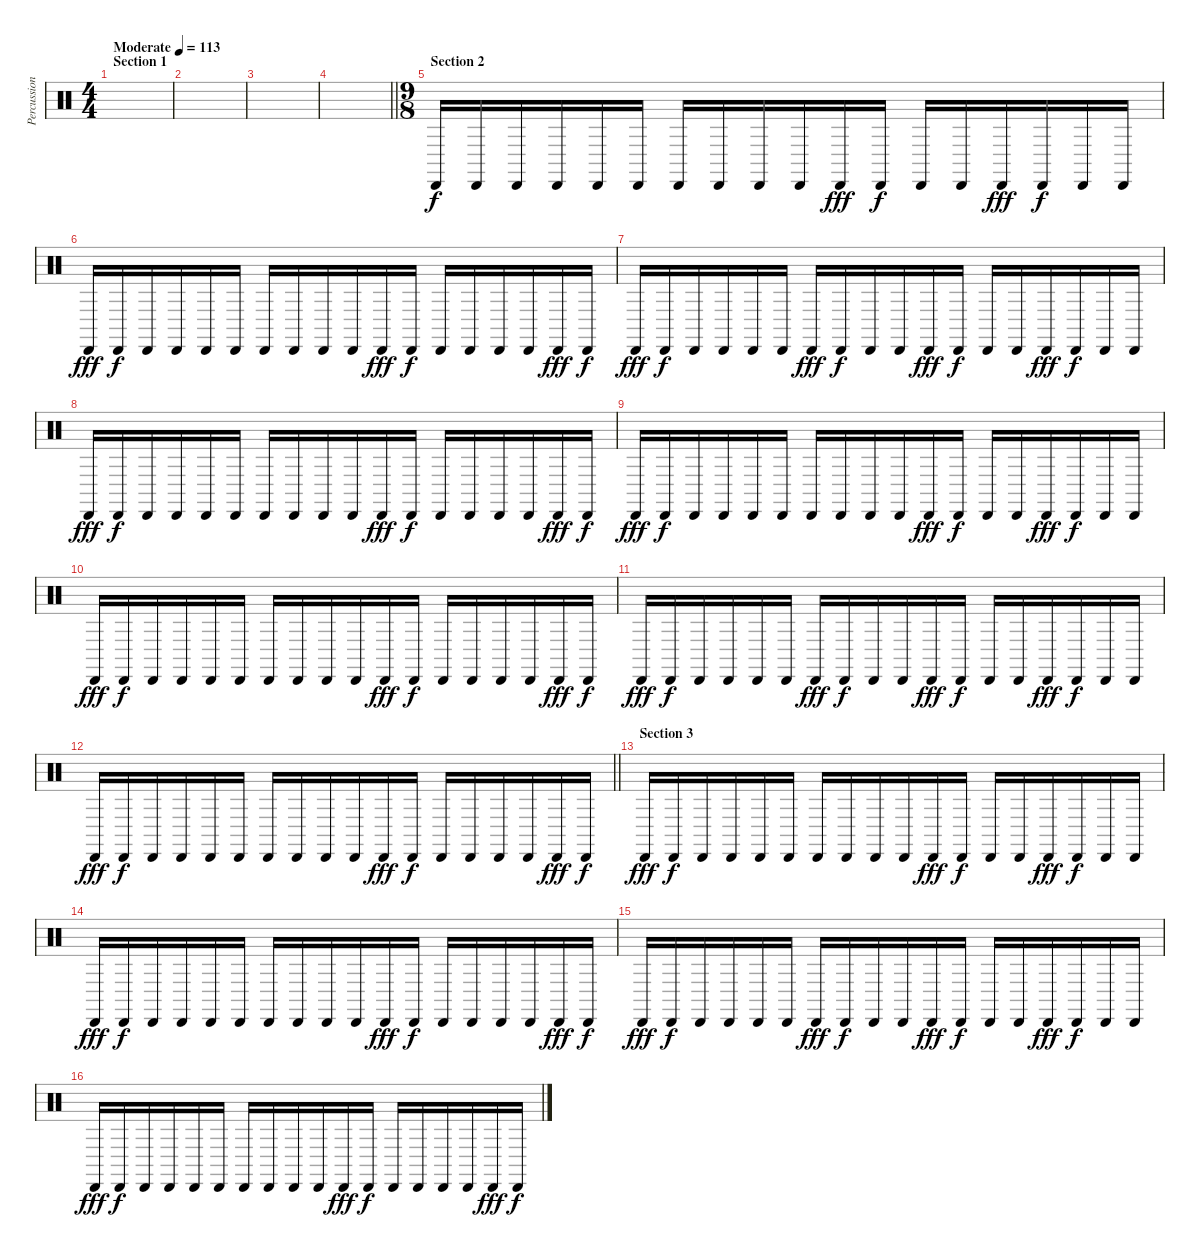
\track ("Percussion" "Percussion") {instrument percussion}
\staff {score}
\articulation defaults
\ts (4 4)
\section ("" "Section 1")
\tempo (113 "Moderate")
\clef neutral
\ks c
|
|
|
\barLineRight lightlight
|
\ts (9 8)
\section ("" "Section 2")
"Cabasa (hit)".16 "Cabasa (hit)".16{dy f} "Cabasa (hit)".16 "Cabasa (hit)".16 "Cabasa (hit)".16 "Cabasa (hit)".16 "Cabasa (hit)".16 "Cabasa (hit)".16 "Cabasa (hit)".16 "Cabasa (hit)".16 "Cabasa (hit)".16{dy fff} "Cabasa (hit)".16{dy f} "Cabasa (hit)".16 "Cabasa (hit)".16 "Cabasa (hit)".16{dy fff} "Cabasa (hit)".16{dy f} "Cabasa (hit)".16 "Cabasa (hit)".16 |
"Cabasa (hit)".16{dy fff} "Cabasa (hit)".16{dy f} "Cabasa (hit)".16 "Cabasa (hit)".16 "Cabasa (hit)".16 "Cabasa (hit)".16 "Cabasa (hit)".16 "Cabasa (hit)".16 "Cabasa (hit)".16 "Cabasa (hit)".16 "Cabasa (hit)".16{dy fff} "Cabasa (hit)".16{dy f} "Cabasa (hit)".16 "Cabasa (hit)".16 "Cabasa (hit)".16 "Cabasa (hit)".16 "Cabasa (hit)".16{dy fff} "Cabasa (hit)".16{dy f} |
"Cabasa (hit)".16{dy fff} "Cabasa (hit)".16{dy f} "Cabasa (hit)".16 "Cabasa (hit)".16 "Cabasa (hit)".16 "Cabasa (hit)".16 "Cabasa (hit)".16{dy fff} "Cabasa (hit)".16{dy f} "Cabasa (hit)".16 "Cabasa (hit)".16 "Cabasa (hit)".16{dy fff} "Cabasa (hit)".16{dy f} "Cabasa (hit)".16 "Cabasa (hit)".16 "Cabasa (hit)".16{dy fff} "Cabasa (hit)".16{dy f} "Cabasa (hit)".16 "Cabasa (hit)".16 |
"Cabasa (hit)".16{dy fff} "Cabasa (hit)".16{dy f} "Cabasa (hit)".16 "Cabasa (hit)".16 "Cabasa (hit)".16 "Cabasa (hit)".16 "Cabasa (hit)".16 "Cabasa (hit)".16 "Cabasa (hit)".16 "Cabasa (hit)".16 "Cabasa (hit)".16{dy fff} "Cabasa (hit)".16{dy f} "Cabasa (hit)".16 "Cabasa (hit)".16 "Cabasa (hit)".16 "Cabasa (hit)".16 "Cabasa (hit)".16{dy fff} "Cabasa (hit)".16{dy f} |
"Cabasa (hit)".16{dy fff} "Cabasa (hit)".16{dy f} "Cabasa (hit)".16 "Cabasa (hit)".16 "Cabasa (hit)".16 "Cabasa (hit)".16 "Cabasa (hit)".16 "Cabasa (hit)".16 "Cabasa (hit)".16 "Cabasa (hit)".16 "Cabasa (hit)".16{dy fff} "Cabasa (hit)".16{dy f} "Cabasa (hit)".16 "Cabasa (hit)".16 "Cabasa (hit)".16{dy fff} "Cabasa (hit)".16{dy f} "Cabasa (hit)".16 "Cabasa (hit)".16 |
"Cabasa (hit)".16{dy fff} "Cabasa (hit)".16{dy f} "Cabasa (hit)".16 "Cabasa (hit)".16 "Cabasa (hit)".16 "Cabasa (hit)".16 "Cabasa (hit)".16 "Cabasa (hit)".16 "Cabasa (hit)".16 "Cabasa (hit)".16 "Cabasa (hit)".16{dy fff} "Cabasa (hit)".16{dy f} "Cabasa (hit)".16 "Cabasa (hit)".16 "Cabasa (hit)".16 "Cabasa (hit)".16 "Cabasa (hit)".16{dy fff} "Cabasa (hit)".16{dy f} |
"Cabasa (hit)".16{dy fff} "Cabasa (hit)".16{dy f} "Cabasa (hit)".16 "Cabasa (hit)".16 "Cabasa (hit)".16 "Cabasa (hit)".16 "Cabasa (hit)".16{dy fff} "Cabasa (hit)".16{dy f} "Cabasa (hit)".16 "Cabasa (hit)".16 "Cabasa (hit)".16{dy fff} "Cabasa (hit)".16{dy f} "Cabasa (hit)".16 "Cabasa (hit)".16 "Cabasa (hit)".16{dy fff} "Cabasa (hit)".16{dy f} "Cabasa (hit)".16 "Cabasa (hit)".16 |
\barLineRight lightlight "Cabasa (hit)".16{dy fff} "Cabasa (hit)".16{dy f} "Cabasa (hit)".16 "Cabasa (hit)".16 "Cabasa (hit)".16 "Cabasa (hit)".16 "Cabasa (hit)".16 "Cabasa (hit)".16 "Cabasa (hit)".16 "Cabasa (hit)".16 "Cabasa (hit)".16{dy fff} "Cabasa (hit)".16{dy f} "Cabasa (hit)".16 "Cabasa (hit)".16 "Cabasa (hit)".16 "Cabasa (hit)".16 "Cabasa (hit)".16{dy fff} "Cabasa (hit)".16{dy f}
|
\section ("" "Section 3")
"Cabasa (hit)".16{dy fff} "Cabasa (hit)".16{dy f} "Cabasa (hit)".16 "Cabasa (hit)".16 "Cabasa (hit)".16 "Cabasa (hit)".16 "Cabasa (hit)".16 "Cabasa (hit)".16 "Cabasa (hit)".16 "Cabasa (hit)".16 "Cabasa (hit)".16{dy fff} "Cabasa (hit)".16{dy f} "Cabasa (hit)".16 "Cabasa (hit)".16 "Cabasa (hit)".16{dy fff} "Cabasa (hit)".16{dy f} "Cabasa (hit)".16 "Cabasa (hit)".16 |
"Cabasa (hit)".16{dy fff} "Cabasa (hit)".16{dy f} "Cabasa (hit)".16 "Cabasa (hit)".16 "Cabasa (hit)".16 "Cabasa (hit)".16 "Cabasa (hit)".16 "Cabasa (hit)".16 "Cabasa (hit)".16 "Cabasa (hit)".16 "Cabasa (hit)".16{dy fff} "Cabasa (hit)".16{dy f} "Cabasa (hit)".16 "Cabasa (hit)".16 "Cabasa (hit)".16 "Cabasa (hit)".16 "Cabasa (hit)".16{dy fff} "Cabasa (hit)".16{dy f} |
"Cabasa (hit)".16{dy fff} "Cabasa (hit)".16{dy f} "Cabasa (hit)".16 "Cabasa (hit)".16 "Cabasa (hit)".16 "Cabasa (hit)".16 "Cabasa (hit)".16{dy fff} "Cabasa (hit)".16{dy f} "Cabasa (hit)".16 "Cabasa (hit)".16 "Cabasa (hit)".16{dy fff} "Cabasa (hit)".16{dy f} "Cabasa (hit)".16 "Cabasa (hit)".16 "Cabasa (hit)".16{dy fff} "Cabasa (hit)".16{dy f} "Cabasa (hit)".16 "Cabasa (hit)".16 |
"Cabasa (hit)".16{dy fff} "Cabasa (hit)".16{dy f} "Cabasa (hit)".16 "Cabasa (hit)".16 "Cabasa (hit)".16 "Cabasa (hit)".16 "Cabasa (hit)".16 "Cabasa (hit)".16 "Cabasa (hit)".16 "Cabasa (hit)".16 "Cabasa (hit)".16{dy fff} "Cabasa (hit)".16{dy f} "Cabasa (hit)".16 "Cabasa (hit)".16 "Cabasa (hit)".16 "Cabasa (hit)".16 "Cabasa (hit)".16{dy fff} "Cabasa (hit)".16{dy f}
